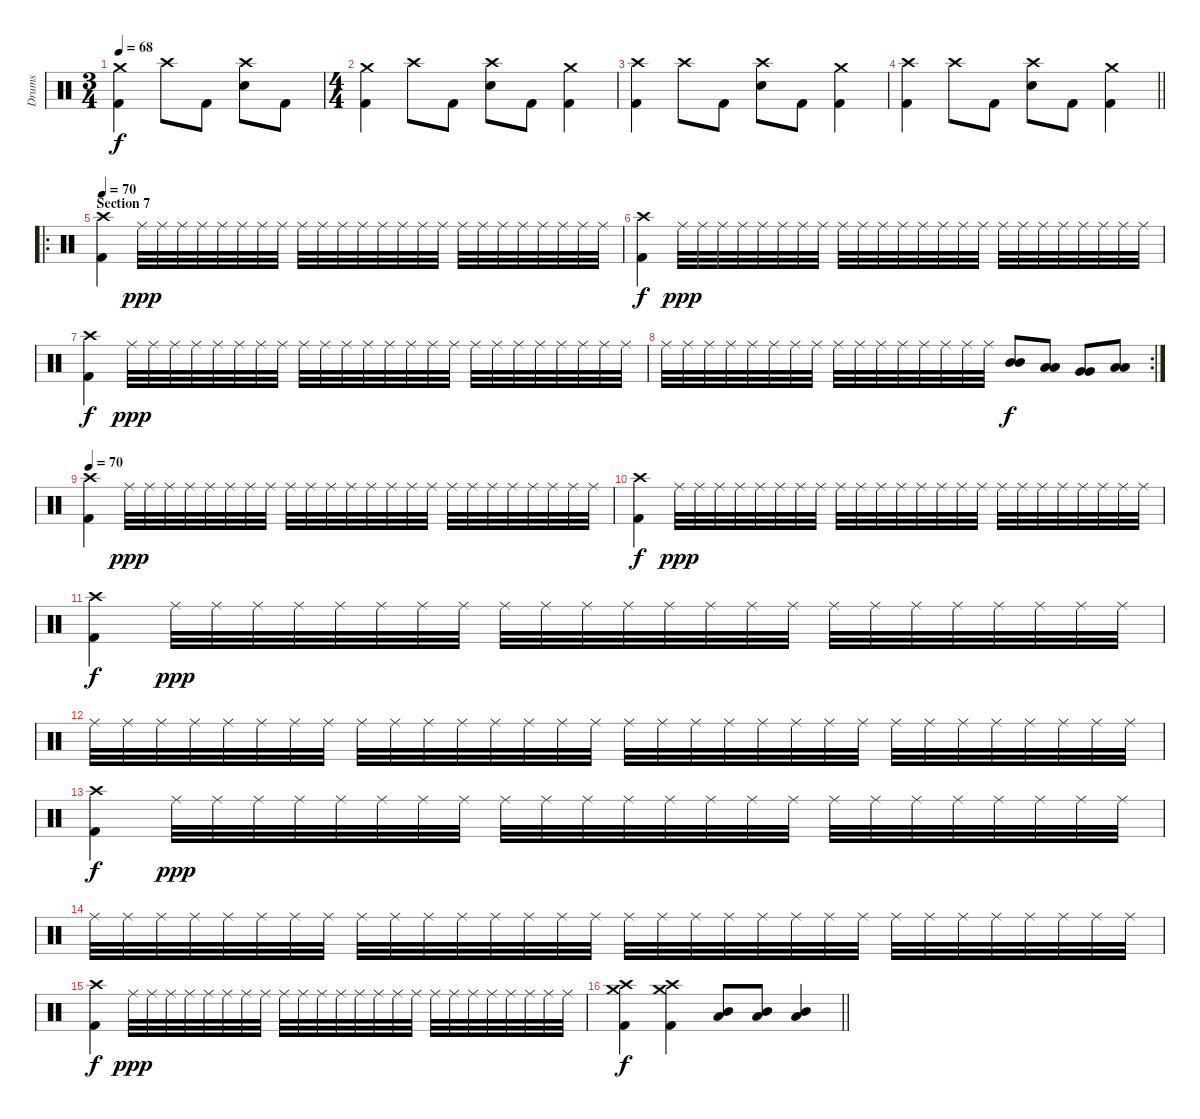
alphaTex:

\track ("Drums" "Drums") {instrument percussion}
\staff {score}
\articulation defaults
\ts (3 4)
\tempo 68
\clef neutral
\ks c
("Crash medium (hit)" "Kick (hit) 2").4{dy f} "Crash high (hit)".8 "Kick (hit) 2".8 ("Crash high (hit)" "Electric Snare (hit)").8 "Kick (hit) 2".8 |
\ts (4 4)
("Crash medium (hit)" "Kick (hit) 2").4 "Crash high (hit)".8 "Kick (hit) 2".8 ("Crash high (hit)" "Electric Snare (hit)").8 "Kick (hit) 2".8 ("Crash medium (hit)" "Kick (hit) 2").4 |
("Crash high (hit)" "Kick (hit) 2").4 "Crash high (hit)".8 "Kick (hit) 2".8 ("Crash high (hit)" "Electric Snare (hit)").8 "Kick (hit) 2".8 ("Crash medium (hit)" "Kick (hit) 2").4 |
\barLineRight lightlight
("Crash high (hit)" "Kick (hit) 2").4 "Crash high (hit)".8 "Kick (hit) 2".8 ("Crash high (hit)" "Electric Snare (hit)").8 "Kick (hit) 2".8 ("Crash medium (hit)" "Kick (hit) 2").4 |
\ro
\section ("" "Section 7")
\tempo 70
("Crash high (hit)" "Kick (hit) 2").4 "Ride (middle)".32{dy ppp} "Ride (middle)".32 "Ride (middle)".32 "Ride (middle)".32 "Ride (middle)".32 "Ride (middle)".32 "Ride (middle)".32 "Ride (middle)".32 "Ride (middle)".32 "Ride (middle)".32 "Ride (middle)".32 "Ride (middle)".32 "Ride (middle)".32 "Ride (middle)".32 "Ride (middle)".32 "Ride (middle)".32 "Ride (middle)".32 "Ride (middle)".32 "Ride (middle)".32 "Ride (middle)".32 "Ride (middle)".32 "Ride (middle)".32 "Ride (middle)".32 "Ride (middle)".32 |
("Crash high (hit)" "Kick (hit) 2").4{dy f} "Ride (middle)".32{dy ppp} "Ride (middle)".32 "Ride (middle)".32 "Ride (middle)".32 "Ride (middle)".32 "Ride (middle)".32 "Ride (middle)".32 "Ride (middle)".32 "Ride (middle)".32 "Ride (middle)".32 "Ride (middle)".32 "Ride (middle)".32 "Ride (middle)".32 "Ride (middle)".32 "Ride (middle)".32 "Ride (middle)".32 "Ride (middle)".32 "Ride (middle)".32 "Ride (middle)".32 "Ride (middle)".32 "Ride (middle)".32 "Ride (middle)".32 "Ride (middle)".32 "Ride (middle)".32 |
("Crash high (hit)" "Kick (hit) 2").4{dy f} "Ride (middle)".32{dy ppp} "Ride (middle)".32 "Ride (middle)".32 "Ride (middle)".32 "Ride (middle)".32 "Ride (middle)".32 "Ride (middle)".32 "Ride (middle)".32 "Ride (middle)".32 "Ride (middle)".32 "Ride (middle)".32 "Ride (middle)".32 "Ride (middle)".32 "Ride (middle)".32 "Ride (middle)".32 "Ride (middle)".32 "Ride (middle)".32 "Ride (middle)".32 "Ride (middle)".32 "Ride (middle)".32 "Ride (middle)".32 "Ride (middle)".32 "Ride (middle)".32 "Ride (middle)".32 |
\rc 2 "Ride (middle)".32 "Ride (middle)".32 "Ride (middle)".32 "Ride (middle)".32 "Ride (middle)".32 "Ride (middle)".32 "Ride (middle)".32 "Ride (middle)".32 "Ride (middle)".32 "Ride (middle)".32 "Ride (middle)".32 "Ride (middle)".32 "Ride (middle)".32 "Ride (middle)".32 "Ride (middle)".32 "Ride (middle)".32
("Mid Tom (hit)" "Mid Tom (hit)").8{dy f} ("Low Tom (hit)" "Low Tom (hit)").8 ("Very Low Tom (hit)" "Very Low Tom (hit)").8 ("Low Floor Tom (hit)" "Low Floor Tom (hit)").8 |
\tempo 70
("Crash high (hit)" "Kick (hit) 2").4 "Ride (middle)".32{dy ppp} "Ride (middle)".32 "Ride (middle)".32 "Ride (middle)".32 "Ride (middle)".32 "Ride (middle)".32 "Ride (middle)".32 "Ride (middle)".32 "Ride (middle)".32 "Ride (middle)".32 "Ride (middle)".32 "Ride (middle)".32 "Ride (middle)".32 "Ride (middle)".32 "Ride (middle)".32 "Ride (middle)".32 "Ride (middle)".32 "Ride (middle)".32 "Ride (middle)".32 "Ride (middle)".32 "Ride (middle)".32 "Ride (middle)".32 "Ride (middle)".32 "Ride (middle)".32 |
("Crash high (hit)" "Kick (hit) 2").4{dy f} "Ride (middle)".32{dy ppp} "Ride (middle)".32 "Ride (middle)".32 "Ride (middle)".32 "Ride (middle)".32 "Ride (middle)".32 "Ride (middle)".32 "Ride (middle)".32 "Ride (middle)".32 "Ride (middle)".32 "Ride (middle)".32 "Ride (middle)".32 "Ride (middle)".32 "Ride (middle)".32 "Ride (middle)".32 "Ride (middle)".32 "Ride (middle)".32 "Ride (middle)".32 "Ride (middle)".32 "Ride (middle)".32 "Ride (middle)".32 "Ride (middle)".32 "Ride (middle)".32 "Ride (middle)".32 |
("Crash high (hit)" "Kick (hit) 2").4{dy f} "Ride (middle)".32{dy ppp} "Ride (middle)".32 "Ride (middle)".32 "Ride (middle)".32 "Ride (middle)".32 "Ride (middle)".32 "Ride (middle)".32 "Ride (middle)".32 "Ride (middle)".32 "Ride (middle)".32 "Ride (middle)".32 "Ride (middle)".32 "Ride (middle)".32 "Ride (middle)".32 "Ride (middle)".32 "Ride (middle)".32 "Ride (middle)".32 "Ride (middle)".32 "Ride (middle)".32 "Ride (middle)".32 "Ride (middle)".32 "Ride (middle)".32 "Ride (middle)".32 "Ride (middle)".32 |
"Ride (middle)".32 "Ride (middle)".32 "Ride (middle)".32 "Ride (middle)".32 "Ride (middle)".32 "Ride (middle)".32 "Ride (middle)".32 "Ride (middle)".32 "Ride (middle)".32 "Ride (middle)".32 "Ride (middle)".32 "Ride (middle)".32 "Ride (middle)".32 "Ride (middle)".32 "Ride (middle)".32 "Ride (middle)".32 "Ride (middle)".32 "Ride (middle)".32 "Ride (middle)".32 "Ride (middle)".32 "Ride (middle)".32 "Ride (middle)".32 "Ride (middle)".32 "Ride (middle)".32 "Ride (middle)".32 "Ride (middle)".32 "Ride (middle)".32 "Ride (middle)".32 "Ride (middle)".32 "Ride (middle)".32 "Ride (middle)".32 "Ride (middle)".32 |
("Crash high (hit)" "Kick (hit) 2").4{dy f} "Ride (middle)".32{dy ppp} "Ride (middle)".32 "Ride (middle)".32 "Ride (middle)".32 "Ride (middle)".32 "Ride (middle)".32 "Ride (middle)".32 "Ride (middle)".32 "Ride (middle)".32 "Ride (middle)".32 "Ride (middle)".32 "Ride (middle)".32 "Ride (middle)".32 "Ride (middle)".32 "Ride (middle)".32 "Ride (middle)".32 "Ride (middle)".32 "Ride (middle)".32 "Ride (middle)".32 "Ride (middle)".32 "Ride (middle)".32 "Ride (middle)".32 "Ride (middle)".32 "Ride (middle)".32 |
"Ride (middle)".32 "Ride (middle)".32 "Ride (middle)".32 "Ride (middle)".32 "Ride (middle)".32 "Ride (middle)".32 "Ride (middle)".32 "Ride (middle)".32 "Ride (middle)".32 "Ride (middle)".32 "Ride (middle)".32 "Ride (middle)".32 "Ride (middle)".32 "Ride (middle)".32 "Ride (middle)".32 "Ride (middle)".32 "Ride (middle)".32 "Ride (middle)".32 "Ride (middle)".32 "Ride (middle)".32 "Ride (middle)".32 "Ride (middle)".32 "Ride (middle)".32 "Ride (middle)".32 "Ride (middle)".32 "Ride (middle)".32 "Ride (middle)".32 "Ride (middle)".32 "Ride (middle)".32 "Ride (middle)".32 "Ride (middle)".32 "Ride (middle)".32 |
("Crash high (hit)" "Kick (hit) 2").4{dy f} "Ride (middle)".32{dy ppp} "Ride (middle)".32 "Ride (middle)".32 "Ride (middle)".32 "Ride (middle)".32 "Ride (middle)".32 "Ride (middle)".32 "Ride (middle)".32 "Ride (middle)".32 "Ride (middle)".32 "Ride (middle)".32 "Ride (middle)".32 "Ride (middle)".32 "Ride (middle)".32 "Ride (middle)".32 "Ride (middle)".32 "Ride (middle)".32 "Ride (middle)".32 "Ride (middle)".32 "Ride (middle)".32 "Ride (middle)".32 "Ride (middle)".32 "Ride (middle)".32 "Ride (middle)".32 |
\barLineRight lightlight
("Crash high (hit)" "Crash medium (hit)" "Kick (hit) 2").4{dy f} ("Crash high (hit)" "Crash medium (hit)" "Kick (hit) 2").4 ("Mid Tom (hit)" "Low Floor Tom (hit)").8 ("Mid Tom (hit)" "Low Floor Tom (hit)").8 ("Mid Tom (hit)" "Low Floor Tom (hit)").4
